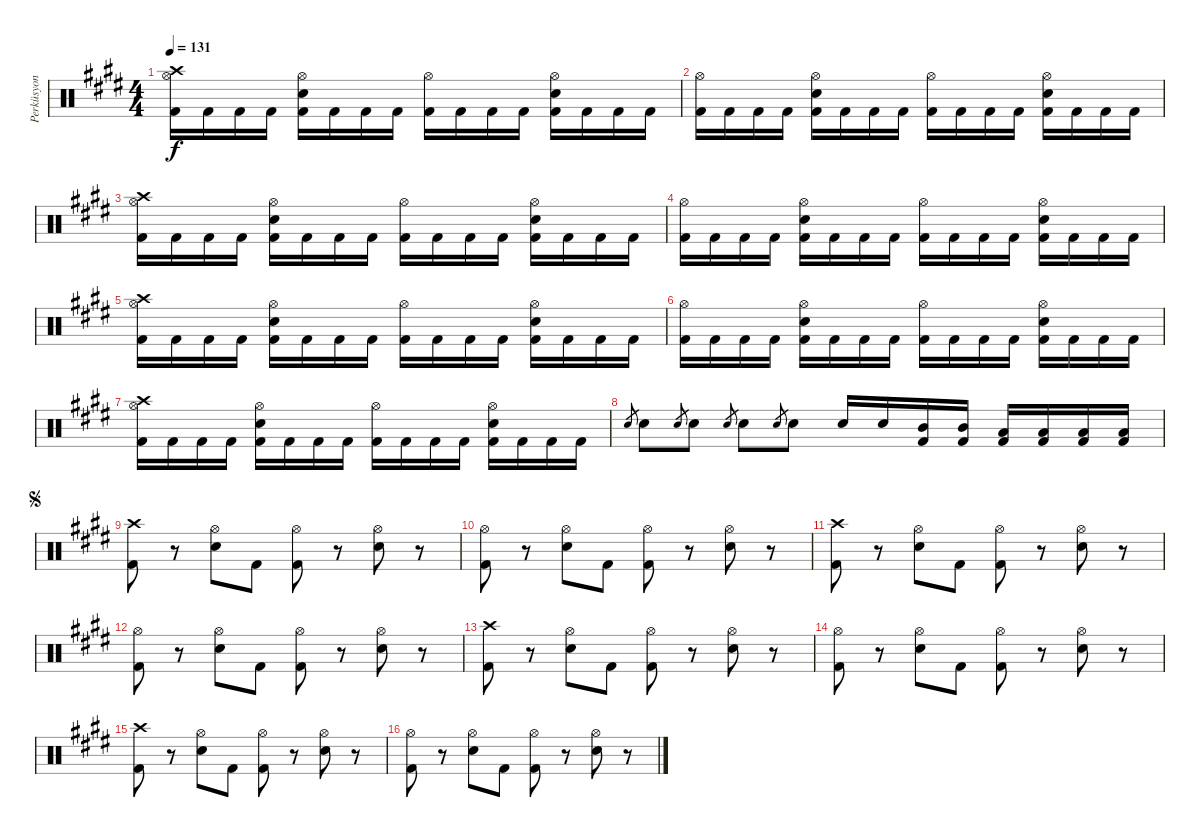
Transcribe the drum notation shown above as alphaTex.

\track ("Perküsyon" "Perküsyon") {instrument percussion}
\staff {score}
\articulation defaults
\ts (4 4)
\tempo 131
\clef neutral
\ks e
("Crash high (hit)" "Hi-Hat (open)" "Kick (hit) 2").16{dy f} "Kick (hit) 2".16 "Kick (hit) 2".16 "Kick (hit) 2".16 ("Hi-Hat (open)" "Snare (hit) 2" "Kick (hit) 2").16 "Kick (hit) 2".16 "Kick (hit) 2".16 "Kick (hit) 2".16 ("Hi-Hat (open)" "Kick (hit) 2").16 "Kick (hit) 2".16 "Kick (hit) 2".16 "Kick (hit) 2".16 ("Hi-Hat (open)" "Snare (hit) 2" "Kick (hit) 2").16 "Kick (hit) 2".16 "Kick (hit) 2".16 "Kick (hit) 2".16 |
\ks c#minor
("Hi-Hat (open)" "Kick (hit) 2").16 "Kick (hit) 2".16 "Kick (hit) 2".16 "Kick (hit) 2".16 ("Hi-Hat (open)" "Snare (hit) 2" "Kick (hit) 2").16 "Kick (hit) 2".16 "Kick (hit) 2".16 "Kick (hit) 2".16 ("Hi-Hat (open)" "Kick (hit) 2").16 "Kick (hit) 2".16 "Kick (hit) 2".16 "Kick (hit) 2".16 ("Hi-Hat (open)" "Snare (hit) 2" "Kick (hit) 2").16 "Kick (hit) 2".16 "Kick (hit) 2".16 "Kick (hit) 2".16 |
\ks e
("Crash high (hit)" "Hi-Hat (open)" "Kick (hit) 2").16 "Kick (hit) 2".16 "Kick (hit) 2".16 "Kick (hit) 2".16 ("Hi-Hat (open)" "Snare (hit) 2" "Kick (hit) 2").16 "Kick (hit) 2".16 "Kick (hit) 2".16 "Kick (hit) 2".16 ("Hi-Hat (open)" "Kick (hit) 2").16 "Kick (hit) 2".16 "Kick (hit) 2".16 "Kick (hit) 2".16 ("Hi-Hat (open)" "Snare (hit) 2" "Kick (hit) 2").16 "Kick (hit) 2".16 "Kick (hit) 2".16 "Kick (hit) 2".16 |
\ks c#minor
("Hi-Hat (open)" "Kick (hit) 2").16 "Kick (hit) 2".16 "Kick (hit) 2".16 "Kick (hit) 2".16 ("Hi-Hat (open)" "Snare (hit) 2" "Kick (hit) 2").16 "Kick (hit) 2".16 "Kick (hit) 2".16 "Kick (hit) 2".16 ("Hi-Hat (open)" "Kick (hit) 2").16 "Kick (hit) 2".16 "Kick (hit) 2".16 "Kick (hit) 2".16 ("Hi-Hat (open)" "Snare (hit) 2" "Kick (hit) 2").16 "Kick (hit) 2".16 "Kick (hit) 2".16 "Kick (hit) 2".16 |
\ks e
("Crash high (hit)" "Hi-Hat (open)" "Kick (hit) 2").16 "Kick (hit) 2".16 "Kick (hit) 2".16 "Kick (hit) 2".16 ("Hi-Hat (open)" "Snare (hit) 2" "Kick (hit) 2").16 "Kick (hit) 2".16 "Kick (hit) 2".16 "Kick (hit) 2".16 ("Hi-Hat (open)" "Kick (hit) 2").16 "Kick (hit) 2".16 "Kick (hit) 2".16 "Kick (hit) 2".16 ("Hi-Hat (open)" "Snare (hit) 2" "Kick (hit) 2").16 "Kick (hit) 2".16 "Kick (hit) 2".16 "Kick (hit) 2".16 |
\ks c#minor
("Hi-Hat (open)" "Kick (hit) 2").16 "Kick (hit) 2".16 "Kick (hit) 2".16 "Kick (hit) 2".16 ("Hi-Hat (open)" "Snare (hit) 2" "Kick (hit) 2").16 "Kick (hit) 2".16 "Kick (hit) 2".16 "Kick (hit) 2".16 ("Hi-Hat (open)" "Kick (hit) 2").16 "Kick (hit) 2".16 "Kick (hit) 2".16 "Kick (hit) 2".16 ("Hi-Hat (open)" "Snare (hit) 2" "Kick (hit) 2").16 "Kick (hit) 2".16 "Kick (hit) 2".16 "Kick (hit) 2".16 |
\ks e
("Crash high (hit)" "Hi-Hat (open)" "Kick (hit) 2").16 "Kick (hit) 2".16 "Kick (hit) 2".16 "Kick (hit) 2".16 ("Hi-Hat (open)" "Snare (hit) 2" "Kick (hit) 2").16 "Kick (hit) 2".16 "Kick (hit) 2".16 "Kick (hit) 2".16 ("Hi-Hat (open)" "Kick (hit) 2").16 "Kick (hit) 2".16 "Kick (hit) 2".16 "Kick (hit) 2".16 ("Hi-Hat (open)" "Snare (hit) 2" "Kick (hit) 2").16 "Kick (hit) 2".16 "Kick (hit) 2".16 "Kick (hit) 2".16 |
\ks c#minor "Snare (hit) 2".8{gr} "Snare (hit) 2".8 "Snare (hit) 2".8{gr} "Snare (hit) 2".8 "Snare (hit) 2".8{gr} "Snare (hit) 2".8 "Snare (hit) 2".8{gr} "Snare (hit) 2".8 "Snare (hit) 2".16 "Snare (hit) 2".16
("Mid Tom (hit)" "Kick (hit) 2").16 ("Mid Tom (hit)" "Kick (hit) 2").16 ("Low Tom (hit)" "Kick (hit) 2").16 ("Low Tom (hit)" "Kick (hit) 2").16 ("Low Tom (hit)" "Kick (hit) 2").16 ("Low Tom (hit)" "Kick (hit) 2").16 |
\jump segno
\ks e
("Crash high (hit)" "Kick (hit) 2").8 r.8 ("Hi-Hat (open)" "Snare (hit) 2").8 "Kick (hit) 2".8 ("Hi-Hat (open)" "Kick (hit) 2").8 r.8 ("Hi-Hat (open)" "Snare (hit) 2").8 r.8 |
\ks c#minor
("Hi-Hat (open)" "Kick (hit) 2").8 r.8 ("Hi-Hat (open)" "Snare (hit) 2").8 "Kick (hit) 2".8 ("Hi-Hat (open)" "Kick (hit) 2").8 r.8 ("Hi-Hat (open)" "Snare (hit) 2").8 r.8 |
\ks e
("Crash high (hit)" "Kick (hit) 2").8 r.8 ("Hi-Hat (open)" "Snare (hit) 2").8 "Kick (hit) 2".8 ("Hi-Hat (open)" "Kick (hit) 2").8 r.8 ("Hi-Hat (open)" "Snare (hit) 2").8 r.8 |
\ks c#minor
("Hi-Hat (open)" "Kick (hit) 2").8 r.8 ("Hi-Hat (open)" "Snare (hit) 2").8 "Kick (hit) 2".8 ("Hi-Hat (open)" "Kick (hit) 2").8 r.8 ("Hi-Hat (open)" "Snare (hit) 2").8 r.8 |
\ks e
("Crash high (hit)" "Kick (hit) 2").8 r.8 ("Hi-Hat (open)" "Snare (hit) 2").8 "Kick (hit) 2".8 ("Hi-Hat (open)" "Kick (hit) 2").8 r.8 ("Hi-Hat (open)" "Snare (hit) 2").8 r.8 |
\ks c#minor
("Hi-Hat (open)" "Kick (hit) 2").8 r.8 ("Hi-Hat (open)" "Snare (hit) 2").8 "Kick (hit) 2".8 ("Hi-Hat (open)" "Kick (hit) 2").8 r.8 ("Hi-Hat (open)" "Snare (hit) 2").8 r.8 |
\ks e
("Crash high (hit)" "Kick (hit) 2").8 r.8 ("Hi-Hat (open)" "Snare (hit) 2").8 "Kick (hit) 2".8 ("Hi-Hat (open)" "Kick (hit) 2").8 r.8 ("Hi-Hat (open)" "Snare (hit) 2").8 r.8 |
\ks c#minor
("Hi-Hat (open)" "Kick (hit) 2").8 r.8 ("Hi-Hat (open)" "Snare (hit) 2").8 "Kick (hit) 2".8 ("Hi-Hat (open)" "Kick (hit) 2").8 r.8 ("Hi-Hat (open)" "Snare (hit) 2").8 r.8
